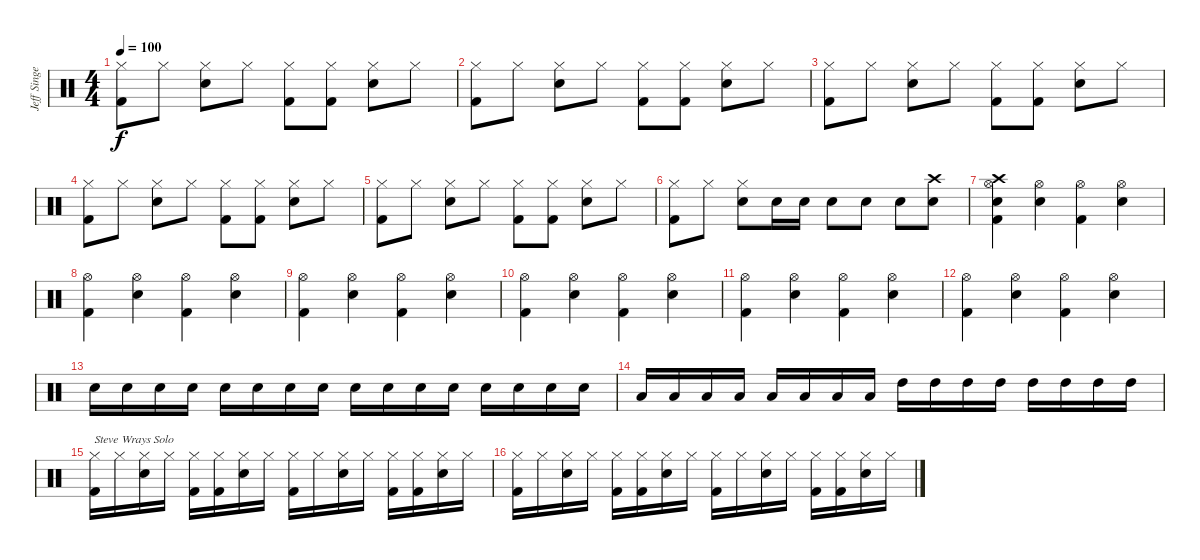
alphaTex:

\track ("Jeff Singer" "Jeff Singe") {instrument percussion}
\staff {score}
\articulation defaults
\ts (4 4)
\tempo 100
\clef neutral
\ks c
("Hi-Hat (closed)" "Kick (hit) 2").8{dy f} "Hi-Hat (closed)".8 ("Hi-Hat (closed)" "Snare (hit) 2").8 "Hi-Hat (closed)".8 ("Hi-Hat (closed)" "Kick (hit) 2").8 ("Hi-Hat (closed)" "Kick (hit) 2").8 ("Hi-Hat (closed)" "Snare (hit) 2").8 "Hi-Hat (closed)".8 |
("Hi-Hat (closed)" "Kick (hit) 2").8 "Hi-Hat (closed)".8 ("Hi-Hat (closed)" "Snare (hit) 2").8 "Hi-Hat (closed)".8 ("Hi-Hat (closed)" "Kick (hit) 2").8 ("Hi-Hat (closed)" "Kick (hit) 2").8 ("Hi-Hat (closed)" "Snare (hit) 2").8 "Hi-Hat (closed)".8 |
("Hi-Hat (closed)" "Kick (hit) 2").8 "Hi-Hat (closed)".8 ("Hi-Hat (closed)" "Snare (hit) 2").8 "Hi-Hat (closed)".8 ("Hi-Hat (closed)" "Kick (hit) 2").8 ("Hi-Hat (closed)" "Kick (hit) 2").8 ("Hi-Hat (closed)" "Snare (hit) 2").8 "Hi-Hat (closed)".8 |
("Hi-Hat (closed)" "Kick (hit) 2").8 "Hi-Hat (closed)".8 ("Hi-Hat (closed)" "Snare (hit) 2").8 "Hi-Hat (closed)".8 ("Hi-Hat (closed)" "Kick (hit) 2").8 ("Hi-Hat (closed)" "Kick (hit) 2").8 ("Hi-Hat (closed)" "Snare (hit) 2").8 "Hi-Hat (closed)".8 |
("Hi-Hat (closed)" "Kick (hit) 2").8 "Hi-Hat (closed)".8 ("Hi-Hat (closed)" "Snare (hit) 2").8 "Hi-Hat (closed)".8 ("Hi-Hat (closed)" "Kick (hit) 2").8 ("Hi-Hat (closed)" "Kick (hit) 2").8 ("Hi-Hat (closed)" "Snare (hit) 2").8 "Hi-Hat (closed)".8 |
("Hi-Hat (closed)" "Kick (hit) 2").8 "Hi-Hat (closed)".8 ("Hi-Hat (closed)" "Snare (hit) 2").8 "Snare (hit) 2".16 "Snare (hit) 2".16 "Snare (hit) 2".8 "Snare (hit) 2".8 "Snare (hit) 2".8 ("Snare (hit) 2" "Crash high (hit)").8 |
("Hi-Hat (open)" "Kick (hit) 2" "Snare (hit) 2" "Crash high (hit)").4 ("Hi-Hat (open)" "Snare (hit) 2").4 ("Hi-Hat (open)" "Kick (hit) 2").4 ("Hi-Hat (open)" "Snare (hit) 2").4 |
("Hi-Hat (open)" "Kick (hit) 2").4 ("Hi-Hat (open)" "Snare (hit) 2").4 ("Hi-Hat (open)" "Kick (hit) 2").4 ("Hi-Hat (open)" "Snare (hit) 2").4 |
("Hi-Hat (open)" "Kick (hit) 2").4 ("Hi-Hat (open)" "Snare (hit) 2").4 ("Hi-Hat (open)" "Kick (hit) 2").4 ("Hi-Hat (open)" "Snare (hit) 2").4 |
("Hi-Hat (open)" "Kick (hit) 2").4 ("Hi-Hat (open)" "Snare (hit) 2").4 ("Hi-Hat (open)" "Kick (hit) 2").4 ("Hi-Hat (open)" "Snare (hit) 2").4 |
("Hi-Hat (open)" "Kick (hit) 2").4 ("Hi-Hat (open)" "Snare (hit) 2").4 ("Hi-Hat (open)" "Kick (hit) 2").4 ("Hi-Hat (open)" "Snare (hit) 2").4 |
("Hi-Hat (open)" "Kick (hit) 2").4 ("Hi-Hat (open)" "Snare (hit) 2").4 ("Hi-Hat (open)" "Kick (hit) 2").4 ("Hi-Hat (open)" "Snare (hit) 2").4 |
"Snare (hit) 2".16 "Snare (hit) 2".16 "Snare (hit) 2".16 "Snare (hit) 2".16 "Snare (hit) 2".16 "Snare (hit) 2".16 "Snare (hit) 2".16 "Snare (hit) 2".16 "Snare (hit) 2".16 "Snare (hit) 2".16 "Snare (hit) 2".16 "Snare (hit) 2".16 "Snare (hit) 2".16 "Snare (hit) 2".16 "Snare (hit) 2".16 "Snare (hit) 2".16 |
"Low Tom (hit)".16 "Low Tom (hit)".16 "Low Tom (hit)".16 "Low Tom (hit)".16 "Low Tom (hit)".16 "Low Tom (hit)".16 "Low Tom (hit)".16 "Low Tom (hit)".16 "High Tom (hit)".16 "High Tom (hit)".16 "High Tom (hit)".16 "High Tom (hit)".16 "High Tom (hit)".16 "High Tom (hit)".16 "High Tom (hit)".16 "High Tom (hit)".16 |
("Hi-Hat (closed)" "Kick (hit) 2").16{txt "Steve Wrays Solo"} "Hi-Hat (closed)".16 ("Hi-Hat (closed)" "Snare (hit) 2").16 "Hi-Hat (closed)".16 ("Hi-Hat (closed)" "Kick (hit) 2").16 ("Hi-Hat (closed)" "Kick (hit) 2").16 ("Hi-Hat (closed)" "Snare (hit) 2").16 "Hi-Hat (closed)".16 ("Hi-Hat (closed)" "Kick (hit) 2").16 "Hi-Hat (closed)".16 ("Hi-Hat (closed)" "Snare (hit) 2").16 "Hi-Hat (closed)".16 ("Hi-Hat (closed)" "Kick (hit) 2").16 ("Hi-Hat (closed)" "Kick (hit) 2").16 ("Hi-Hat (closed)" "Snare (hit) 2").16 "Hi-Hat (closed)".16 |
("Hi-Hat (closed)" "Kick (hit) 2").16 "Hi-Hat (closed)".16 ("Hi-Hat (closed)" "Snare (hit) 2").16 "Hi-Hat (closed)".16 ("Hi-Hat (closed)" "Kick (hit) 2").16 ("Hi-Hat (closed)" "Kick (hit) 2").16 ("Hi-Hat (closed)" "Snare (hit) 2").16 "Hi-Hat (closed)".16 ("Hi-Hat (closed)" "Kick (hit) 2").16 "Hi-Hat (closed)".16 ("Hi-Hat (closed)" "Snare (hit) 2").16 "Hi-Hat (closed)".16 ("Hi-Hat (closed)" "Kick (hit) 2").16 ("Hi-Hat (closed)" "Kick (hit) 2").16 ("Hi-Hat (closed)" "Snare (hit) 2").16 "Hi-Hat (closed)".16
